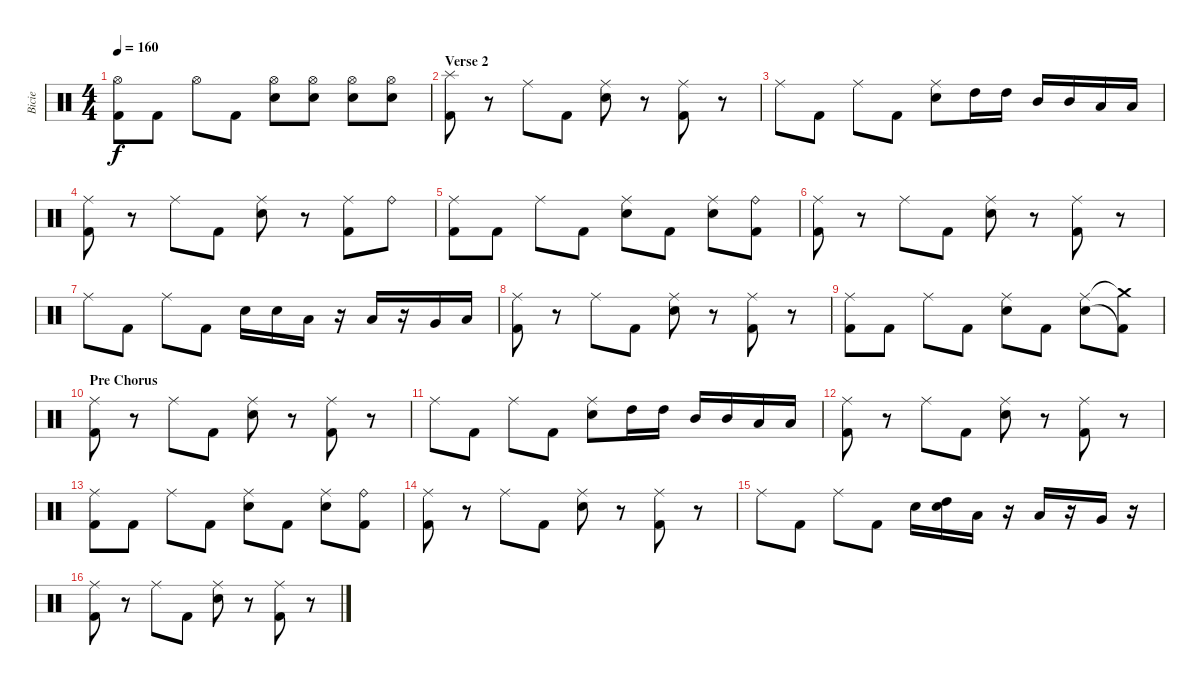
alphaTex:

\track ("Bicie" "Bicie") {instrument percussion}
\staff {score}
\articulation defaults
\ts (4 4)
\tempo 160
\clef neutral
\ks c
("Hi-Hat (open)" "Kick (hit) 2").8{dy f} "Kick (hit) 2".8 "Hi-Hat (open)".8 "Kick (hit) 2".8 ("Hi-Hat (open)" "Electric Snare (hit)").8 ("Hi-Hat (open)" "Electric Snare (hit)").8 ("Hi-Hat (open)" "Electric Snare (hit)").8 ("Hi-Hat (open)" "Electric Snare (hit)").8 |
\section ("" "Verse 2")
("Splash (hit)" "Kick (hit) 2").8 r.8 "Ride (middle)".8 "Kick (hit) 2".8 ("Ride (middle)" "Electric Snare (hit)").8 r.8 ("Ride (middle)" "Kick (hit) 2").8 r.8 |
"Ride (middle)".8 "Kick (hit) 2".8 "Ride (middle)".8 "Kick (hit) 2".8 ("Ride (middle)" "Electric Snare (hit)").8 "High Tom (hit)".16 "High Tom (hit)".16 "Mid Tom (hit)".16 "Mid Tom (hit)".16 "Low Tom (hit)".16 "Low Tom (hit)".16 |
("Ride (middle)" "Kick (hit) 2").8 r.8 "Ride (middle)".8 "Kick (hit) 2".8 ("Ride (middle)" "Electric Snare (hit)").8 r.8 ("Ride (middle)" "Kick (hit) 2").8 "Ride (bell)".8 |
("Ride (middle)" "Kick (hit) 2").8 "Kick (hit) 2".8 "Ride (middle)".8 "Kick (hit) 2".8 ("Ride (middle)" "Electric Snare (hit)").8 "Kick (hit) 2".8 ("Ride (middle)" "Electric Snare (hit)").8 ("Ride (bell)" "Kick (hit) 2").8 |
("Ride (middle)" "Kick (hit) 2").8 r.8 "Ride (middle)".8 "Kick (hit) 2".8 ("Ride (middle)" "Electric Snare (hit)").8 r.8 ("Ride (middle)" "Kick (hit) 2").8 r.8 |
"Ride (middle)".8 "Kick (hit) 2".8 "Ride (middle)".8 "Kick (hit) 2".8 "Electric Snare (hit)".16 "Electric Snare (hit)".16 "Low Tom (hit)".16 r.16 "Low Tom (hit)".16 r.16 "Very Low Tom (hit)".16 "Low Floor Tom (hit)".16 |
("Ride (middle)" "Kick (hit) 2").8 r.8 "Ride (middle)".8 "Kick (hit) 2".8 ("Ride (middle)" "Electric Snare (hit)").8 r.8 ("Ride (middle)" "Kick (hit) 2").8 r.8 |
("Ride (middle)" "Kick (hit) 2").8 "Kick (hit) 2".8 "Ride (middle)".8 "Kick (hit) 2".8 ("Ride (middle)" "Electric Snare (hit)").8 "Kick (hit) 2".8 ("Ride (middle)" "Electric Snare (hit)").8 ("Crash medium (hit)"{t} "Kick (hit) 2"{t}).8 |
\section ("" "Pre Chorus")
("Ride (middle)" "Kick (hit) 2").8 r.8 "Ride (middle)".8 "Kick (hit) 2".8 ("Ride (middle)" "Electric Snare (hit)").8 r.8 ("Ride (middle)" "Kick (hit) 2").8 r.8 |
"Ride (middle)".8 "Kick (hit) 2".8 "Ride (middle)".8 "Kick (hit) 2".8 ("Ride (middle)" "Electric Snare (hit)").8 "High Tom (hit)".16 "High Tom (hit)".16 "Mid Tom (hit)".16 "Mid Tom (hit)".16 "Low Tom (hit)".16 "Low Tom (hit)".16 |
("Ride (middle)" "Kick (hit) 2").8 r.8 "Ride (middle)".8 "Kick (hit) 2".8 ("Ride (middle)" "Electric Snare (hit)").8 r.8 ("Ride (middle)" "Kick (hit) 2").8 r.8 |
("Ride (middle)" "Kick (hit) 2").8 "Kick (hit) 2".8 "Ride (middle)".8 "Kick (hit) 2".8 ("Ride (middle)" "Electric Snare (hit)").8 "Kick (hit) 2".8 ("Ride (middle)" "Electric Snare (hit)").8 ("Ride (bell)" "Kick (hit) 2").8 |
("Ride (middle)" "Kick (hit) 2").8 r.8 "Ride (middle)".8 "Kick (hit) 2".8 ("Ride (middle)" "Electric Snare (hit)").8 r.8 ("Ride (middle)" "Kick (hit) 2").8 r.8 |
"Ride (middle)".8 "Kick (hit) 2".8 "Ride (middle)".8 "Kick (hit) 2".8 "Electric Snare (hit)".16 ("High Tom (hit)" "Electric Snare (hit)").16 "Low Tom (hit)".16 r.16 "Low Tom (hit)".16 r.16 "Very Low Tom (hit)".16 r.16 |
("Ride (middle)" "Kick (hit) 2").8 r.8 "Ride (middle)".8 "Kick (hit) 2".8 ("Ride (middle)" "Electric Snare (hit)").8 r.8 ("Ride (middle)" "Kick (hit) 2").8 r.8
